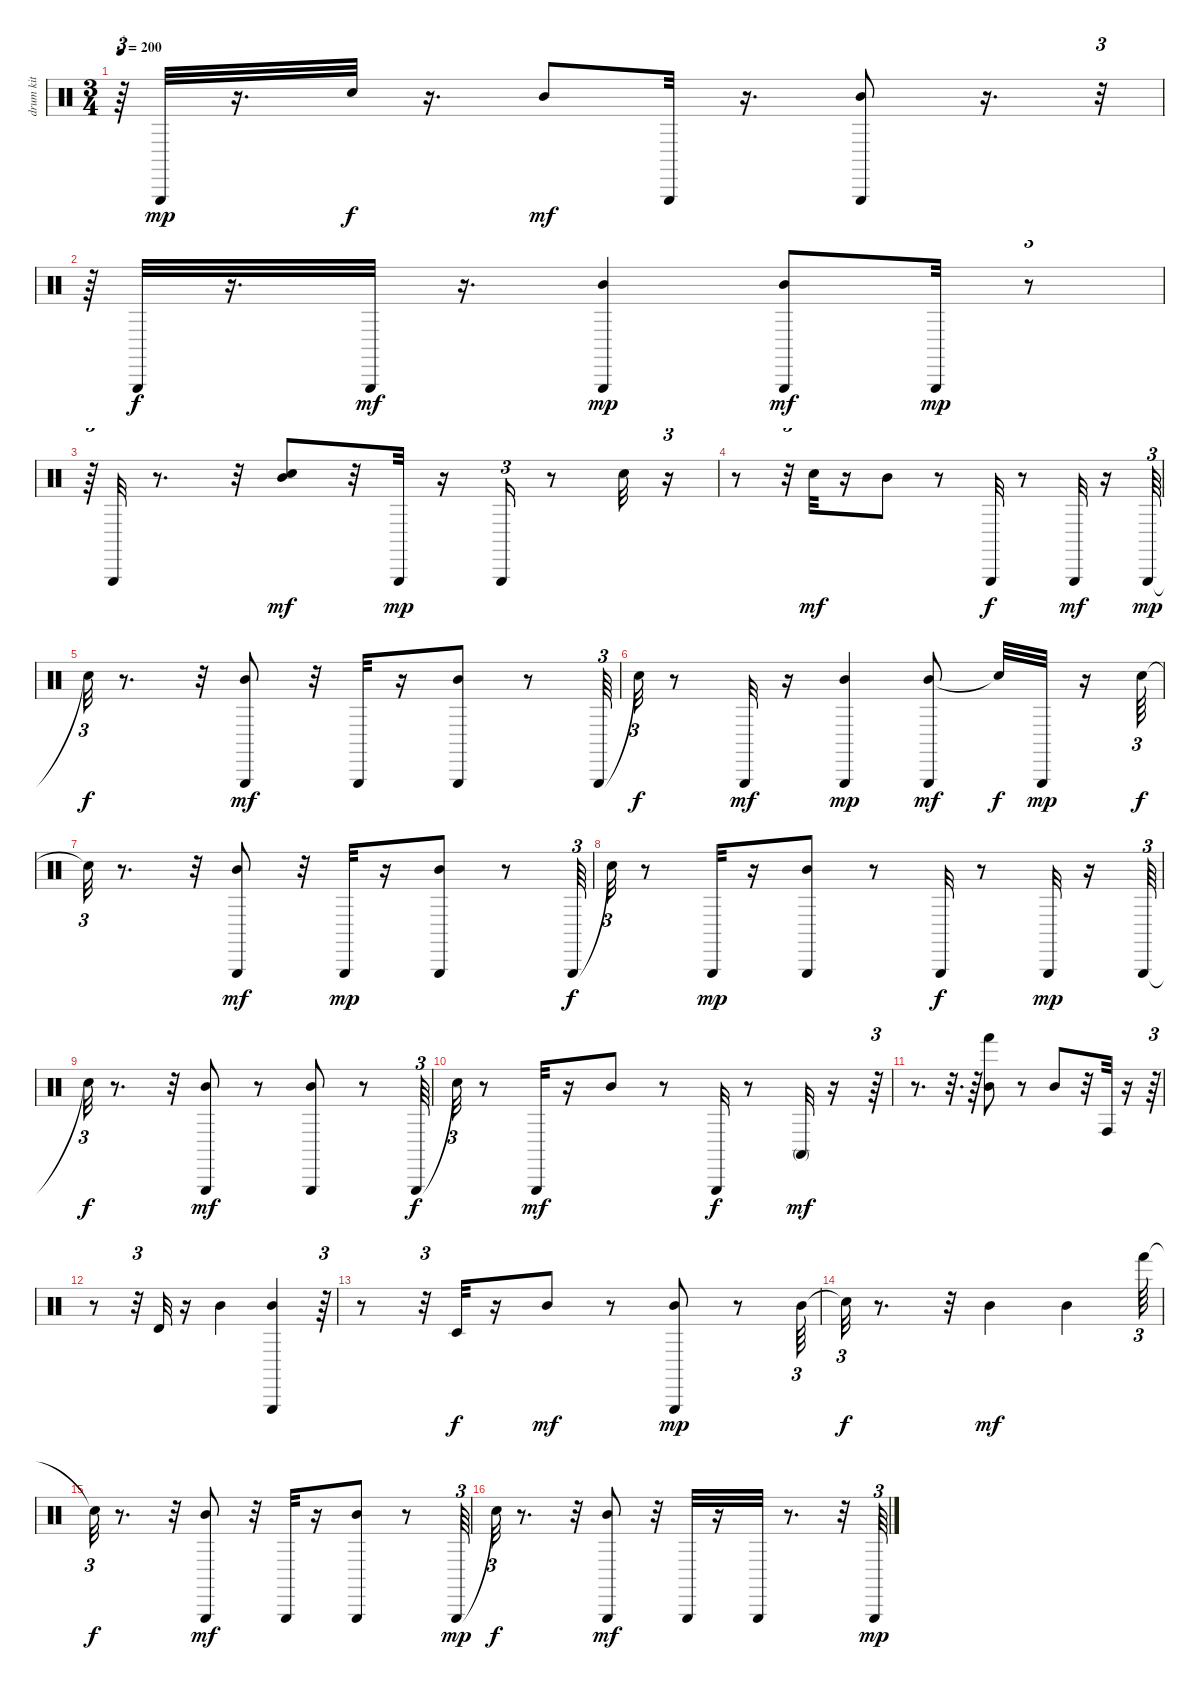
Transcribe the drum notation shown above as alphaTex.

\track (" drum kit (hi-hat/cymbals)" " drum kit ") {instrument percussion}
\staff {score}
\articulation defaults
\ts (3 4)
\tempo 200
\clef neutral
\ks c
r.64{tu (3 2) dy mf} "Triangle (hit)".32{dy mp} r.16{d} "Snare (hit)".32{dy f} r.16{d} "Mid Tom (hit)".8{dy mf} "Triangle (hit)".32 r.16{d} ("Mid Tom (hit)" "Triangle (hit)").8 r.16{d} r.32{tu (3 2)} |
r.64{tu (3 2)} "Triangle (hit)".32{dy f} r.16{d} "Triangle (hit)".32{dy mf} r.16{d} ("Mid Tom (hit)" "Triangle (hit)").4{dy mp} ("Mid Tom (hit)" "Triangle (hit)").8{dy mf} "Triangle (hit)".32{dy mp} r.8{tu (3 2)} |
r.64{tu (3 2)} "Triangle (hit)".32 r.8{d} r.32 ("Mid Tom (hit)" "Snare (hit)").8{dy mf} r.32 "Triangle (hit)".32{dy mp} r.16 "Triangle (hit)".16{tu (3 2)} r.8 "Snare (hit)".32 r.16{tu (3 2)} |
r.8 r.32{tu (3 2)} "Snare (hit)".32{dy mf} r.16 "Mid Tom (hit)".8 r.8 "Triangle (hit)".32{dy f} r.8 "Triangle (hit)".32{dy mf} r.16 "Triangle (hit)".64{tu (3 2) dy mp} |
"Snare (hit)"{t}.32{tu (3 2) dy f} r.8{d} r.32 ("Mid Tom (hit)" "Triangle (hit)").8{dy mf} r.32 "Triangle (hit)".32 r.16 ("Mid Tom (hit)" "Triangle (hit)").8 r.8 "Triangle (hit)".64{tu (3 2)} |
"Snare (hit)"{t}.32{tu (3 2) dy f} r.8 "Triangle (hit)".32{dy mf} r.16 ("Mid Tom (hit)" "Triangle (hit)").4{dy mp} ("Mid Tom (hit)" "Triangle (hit)").8{dy mf} "Snare (hit)"{t}.32{dy f} "Triangle (hit)".32{dy mp} r.16 "Snare (hit)".64{tu (3 2) dy f} |
"Snare (hit)"{t}.32{tu (3 2)} r.8{d} r.32 ("Mid Tom (hit)" "Triangle (hit)").8{dy mf} r.32 "Triangle (hit)".32{dy mp} r.16 ("Mid Tom (hit)" "Triangle (hit)").8 r.8 "Triangle (hit)".64{tu (3 2) dy f} |
"Snare (hit)"{t}.32{tu (3 2)} r.8 "Triangle (hit)".32{dy mp} r.16 ("Mid Tom (hit)" "Triangle (hit)").8 r.8 "Triangle (hit)".32{dy f} r.8 "Triangle (hit)".32{dy mp} r.16 "Triangle (hit)".64{tu (3 2)} |
"Snare (hit)"{t}.32{tu (3 2) dy f} r.8{d} r.32 ("Triangle (hit)" "Mid Tom (hit)").8{dy mf} r.8 ("Triangle (hit)" "Mid Tom (hit)").8 r.8 "Triangle (hit)".64{tu (3 2) dy f} |
"Snare (hit)"{t}.32{tu (3 2)} r.8 "Triangle (hit)".32{dy mf} r.16 "Mid Tom (hit)".8 r.8 "Triangle (hit)".32{dy f} r.8 "Conga high (mute)".32{dy mf} r.16 r.64{tu (3 2)} |
r.8{d} r.32{d} r.64 ("Mid Tom (hit)" "Hand (hit)").8 r.8 "Mid Tom (hit)".8 r.32 "Conga high (hit)".32 r.16 r.64{tu (3 2)} |
r.8 r.32{tu (3 2)} "Timbale high (hit)".32 r.16 "Mid Tom (hit)".4 ("Mid Tom (hit)" "Triangle (hit)").4 r.64{tu (3 2)} |
r.8 r.32{tu (3 2)} "Timbale low (hit)".32{dy f} r.16 "Mid Tom (hit)".8{dy mf} r.8 ("Mid Tom (hit)" "Triangle (hit)").8{dy mp} r.8 "Mid Tom (hit)".64{tu (3 2)} |
"Snare (hit)"{t}.32{tu (3 2) dy f} r.8{d} r.32 "Mid Tom (hit)".4{dy mf} "Mid Tom (hit)".4 "Hand (hit)".64{tu (3 2)} |
"Snare (hit)"{t}.32{tu (3 2) dy f} r.8{d} r.32 ("Triangle (hit)" "Mid Tom (hit)").8{dy mf} r.32 "Triangle (hit)".32 r.16 ("Triangle (hit)" "Mid Tom (hit)").8 r.8 "Triangle (hit)".64{tu (3 2) dy mp} |
"Snare (hit)"{t}.32{tu (3 2) dy f} r.8{d} r.32 ("Mid Tom (hit)" "Triangle (hit)").8{dy mf} r.32 "Triangle (hit)".32 r.16 "Triangle (hit)".32 r.8{d} r.32 "Triangle (hit)".64{tu (3 2) dy mp}
